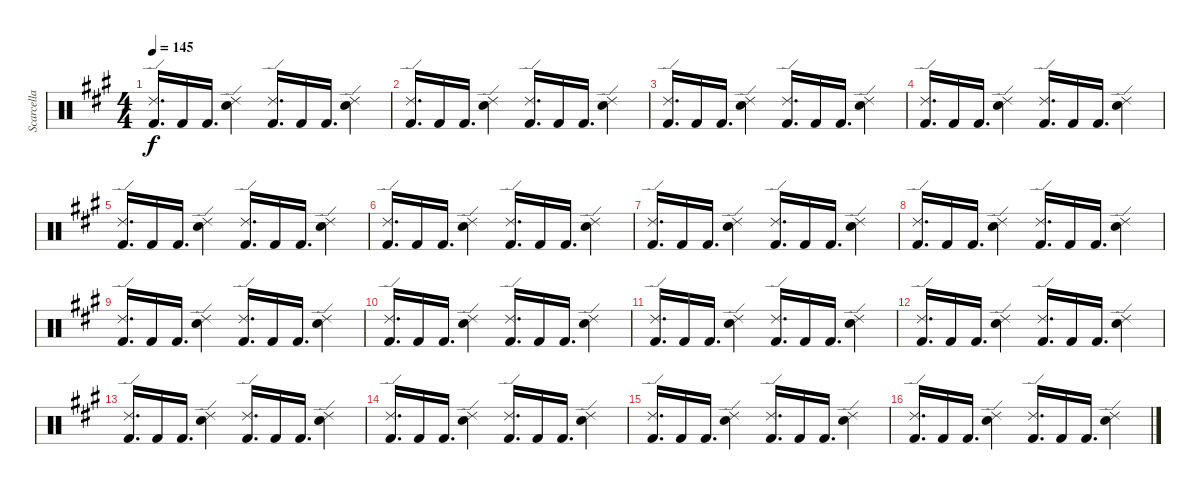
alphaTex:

\track ("Scarcella" "Scarcella") {instrument percussion}
\staff {score}
\articulation defaults
\ts (4 4)
\tempo 145
\clef neutral
\ks f#minor
("Ride (edge) 2" "Kick (hit) 2").16{d dy f} "Kick (hit) 2".16 "Kick (hit) 2".16{d} ("Ride (edge) 2" "Snare (hit) 2").4 ("Ride (edge) 2" "Kick (hit) 2").16{d} "Kick (hit) 2".16 "Kick (hit) 2".16{d} ("Ride (edge) 2" "Snare (hit) 2").4 |
("Ride (edge) 2" "Kick (hit) 2").16{d} "Kick (hit) 2".16 "Kick (hit) 2".16{d} ("Ride (edge) 2" "Snare (hit) 2").4 ("Ride (edge) 2" "Kick (hit) 2").16{d} "Kick (hit) 2".16 "Kick (hit) 2".16{d} ("Ride (edge) 2" "Snare (hit) 2").4 |
("Ride (edge) 2" "Kick (hit) 2").16{d} "Kick (hit) 2".16 "Kick (hit) 2".16{d} ("Ride (edge) 2" "Snare (hit) 2").4 ("Ride (edge) 2" "Kick (hit) 2").16{d} "Kick (hit) 2".16 "Kick (hit) 2".16{d} ("Ride (edge) 2" "Snare (hit) 2").4 |
("Ride (edge) 2" "Kick (hit) 2").16{d} "Kick (hit) 2".16 "Kick (hit) 2".16{d} ("Ride (edge) 2" "Snare (hit) 2").4 ("Ride (edge) 2" "Kick (hit) 2").16{d} "Kick (hit) 2".16 "Kick (hit) 2".16{d} ("Ride (edge) 2" "Snare (hit) 2").4 |
("Ride (edge) 2" "Kick (hit) 2").16{d} "Kick (hit) 2".16 "Kick (hit) 2".16{d} ("Ride (edge) 2" "Snare (hit) 2").4 ("Ride (edge) 2" "Kick (hit) 2").16{d} "Kick (hit) 2".16 "Kick (hit) 2".16{d} ("Ride (edge) 2" "Snare (hit) 2").4 |
("Ride (edge) 2" "Kick (hit) 2").16{d} "Kick (hit) 2".16 "Kick (hit) 2".16{d} ("Ride (edge) 2" "Snare (hit) 2").4 ("Ride (edge) 2" "Kick (hit) 2").16{d} "Kick (hit) 2".16 "Kick (hit) 2".16{d} ("Ride (edge) 2" "Snare (hit) 2").4 |
("Ride (edge) 2" "Kick (hit) 2").16{d} "Kick (hit) 2".16 "Kick (hit) 2".16{d} ("Ride (edge) 2" "Snare (hit) 2").4 ("Ride (edge) 2" "Kick (hit) 2").16{d} "Kick (hit) 2".16 "Kick (hit) 2".16{d} ("Ride (edge) 2" "Snare (hit) 2").4 |
("Ride (edge) 2" "Kick (hit) 2").16{d} "Kick (hit) 2".16 "Kick (hit) 2".16{d} ("Ride (edge) 2" "Snare (hit) 2").4 ("Ride (edge) 2" "Kick (hit) 2").16{d} "Kick (hit) 2".16 "Kick (hit) 2".16{d} ("Ride (edge) 2" "Snare (hit) 2").4 |
("Ride (edge) 2" "Kick (hit) 2").16{d} "Kick (hit) 2".16 "Kick (hit) 2".16{d} ("Ride (edge) 2" "Snare (hit) 2").4 ("Ride (edge) 2" "Kick (hit) 2").16{d} "Kick (hit) 2".16 "Kick (hit) 2".16{d} ("Ride (edge) 2" "Snare (hit) 2").4 |
("Ride (edge) 2" "Kick (hit) 2").16{d} "Kick (hit) 2".16 "Kick (hit) 2".16{d} ("Ride (edge) 2" "Snare (hit) 2").4 ("Ride (edge) 2" "Kick (hit) 2").16{d} "Kick (hit) 2".16 "Kick (hit) 2".16{d} ("Ride (edge) 2" "Snare (hit) 2").4 |
("Ride (edge) 2" "Kick (hit) 2").16{d} "Kick (hit) 2".16 "Kick (hit) 2".16{d} ("Ride (edge) 2" "Snare (hit) 2").4 ("Ride (edge) 2" "Kick (hit) 2").16{d} "Kick (hit) 2".16 "Kick (hit) 2".16{d} ("Ride (edge) 2" "Snare (hit) 2").4 |
("Ride (edge) 2" "Kick (hit) 2").16{d} "Kick (hit) 2".16 "Kick (hit) 2".16{d} ("Ride (edge) 2" "Snare (hit) 2").4 ("Ride (edge) 2" "Kick (hit) 2").16{d} "Kick (hit) 2".16 "Kick (hit) 2".16{d} ("Ride (edge) 2" "Snare (hit) 2").4 |
("Ride (edge) 2" "Kick (hit) 2").16{d} "Kick (hit) 2".16 "Kick (hit) 2".16{d} ("Ride (edge) 2" "Snare (hit) 2").4 ("Ride (edge) 2" "Kick (hit) 2").16{d} "Kick (hit) 2".16 "Kick (hit) 2".16{d} ("Ride (edge) 2" "Snare (hit) 2").4 |
("Ride (edge) 2" "Kick (hit) 2").16{d} "Kick (hit) 2".16 "Kick (hit) 2".16{d} ("Ride (edge) 2" "Snare (hit) 2").4 ("Ride (edge) 2" "Kick (hit) 2").16{d} "Kick (hit) 2".16 "Kick (hit) 2".16{d} ("Ride (edge) 2" "Snare (hit) 2").4 |
("Ride (edge) 2" "Kick (hit) 2").16{d} "Kick (hit) 2".16 "Kick (hit) 2".16{d} ("Ride (edge) 2" "Snare (hit) 2").4 ("Ride (edge) 2" "Kick (hit) 2").16{d} "Kick (hit) 2".16 "Kick (hit) 2".16{d} ("Ride (edge) 2" "Snare (hit) 2").4 |
("Ride (edge) 2" "Kick (hit) 2").16{d} "Kick (hit) 2".16 "Kick (hit) 2".16{d} ("Ride (edge) 2" "Snare (hit) 2").4 ("Ride (edge) 2" "Kick (hit) 2").16{d} "Kick (hit) 2".16 "Kick (hit) 2".16{d} ("Ride (edge) 2" "Snare (hit) 2").4
